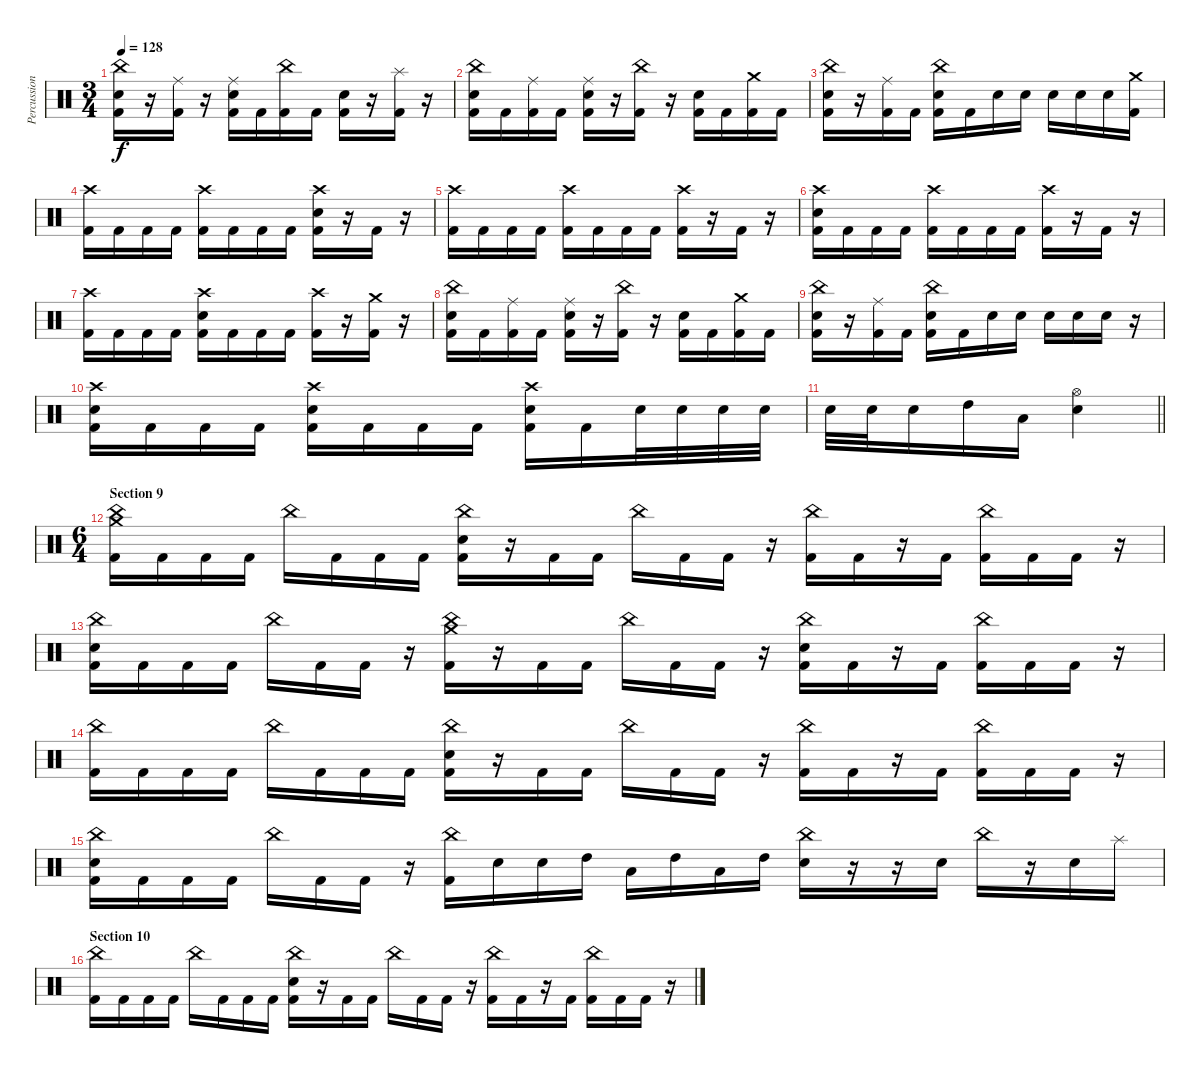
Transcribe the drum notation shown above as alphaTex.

\track ("Percussion" "Percussion") {instrument percussion}
\staff {score}
\articulation defaults
\ts (3 4)
\tempo 128
\clef neutral
\ks c
("China (hit)" "Snare (hit) 2" "Kick (hit) 2").16{dy f} r.16 ("Ride (middle)" "Kick (hit) 2").16 r.16 ("Ride (middle)" "Snare (hit) 2" "Kick (hit) 2").16 "Kick (hit) 2".16 ("China (hit)" "Kick (hit) 2").16 "Kick (hit) 2".16 ("Snare (hit) 2" "Kick (hit) 2").16 r.16 ("Splash (hit)" "Kick (hit) 2").16 r.16 |
("China (hit)" "Snare (hit) 2" "Kick (hit) 2").16 "Kick (hit) 2".16 ("Ride (middle)" "Kick (hit) 2").16 "Kick (hit) 2".16 ("Ride (middle)" "Snare (hit) 2" "Kick (hit) 2").16 r.16 ("China (hit)" "Kick (hit) 2").16 r.16 ("Snare (hit) 2" "Kick (hit) 2").16 "Kick (hit) 2".16 ("Crash medium (hit)" "Kick (hit) 2").16 "Kick (hit) 2".16 |
("China (hit)" "Snare (hit) 2" "Kick (hit) 2").16 r.16 ("Ride (middle)" "Kick (hit) 2").16 "Kick (hit) 2".16 ("China (hit)" "Snare (hit) 2" "Kick (hit) 2").16 "Kick (hit) 2".16 "Snare (hit) 2".16 "Snare (hit) 2".16 "Snare (hit) 2".16 "Snare (hit) 2".16 "Snare (hit) 2".16 ("Crash medium (hit)" "Kick (hit) 2").16 |
("Crash high (hit)" "Kick (hit) 2").16 "Kick (hit) 2".16 "Kick (hit) 2".16 "Kick (hit) 2".16 ("Crash high (hit)" "Kick (hit) 2").16 "Kick (hit) 2".16 "Kick (hit) 2".16 "Kick (hit) 2".16 ("Crash high (hit)" "Snare (hit) 2" "Kick (hit) 2").16 r.16 "Kick (hit) 2".16 r.16 |
("Crash high (hit)" "Kick (hit) 2").16 "Kick (hit) 2".16 "Kick (hit) 2".16 "Kick (hit) 2".16 ("Crash high (hit)" "Kick (hit) 2").16 "Kick (hit) 2".16 "Kick (hit) 2".16 "Kick (hit) 2".16 ("Crash high (hit)" "Kick (hit) 2").16 r.16 "Kick (hit) 2".16 r.16 |
("Crash high (hit)" "Snare (hit) 2" "Kick (hit) 2").16 "Kick (hit) 2".16 "Kick (hit) 2".16 "Kick (hit) 2".16 ("Crash high (hit)" "Kick (hit) 2").16 "Kick (hit) 2".16 "Kick (hit) 2".16 "Kick (hit) 2".16 ("Crash high (hit)" "Kick (hit) 2").16 r.16 "Kick (hit) 2".16 r.16 |
("Crash high (hit)" "Kick (hit) 2").16 "Kick (hit) 2".16 "Kick (hit) 2".16 "Kick (hit) 2".16 ("Crash high (hit)" "Snare (hit) 2" "Kick (hit) 2").16 "Kick (hit) 2".16 "Kick (hit) 2".16 "Kick (hit) 2".16 ("Crash high (hit)" "Kick (hit) 2").16 r.16 ("Crash medium (hit)" "Kick (hit) 2").16 r.16 |
("China (hit)" "Snare (hit) 2" "Kick (hit) 2").16 "Kick (hit) 2".16 ("Ride (middle)" "Kick (hit) 2").16 "Kick (hit) 2".16 ("Ride (middle)" "Snare (hit) 2" "Kick (hit) 2").16 r.16 ("China (hit)" "Kick (hit) 2").16 r.16 ("Snare (hit) 2" "Kick (hit) 2").16 "Kick (hit) 2".16 ("Crash medium (hit)" "Kick (hit) 2").16 "Kick (hit) 2".16 |
("China (hit)" "Snare (hit) 2" "Kick (hit) 2").16 r.16 ("Ride (middle)" "Kick (hit) 2").16 "Kick (hit) 2".16 ("China (hit)" "Snare (hit) 2" "Kick (hit) 2").16 "Kick (hit) 2".16 "Snare (hit) 2".16 "Snare (hit) 2".16 "Snare (hit) 2".16 "Snare (hit) 2".16 "Snare (hit) 2".16 r.16 |
("Crash high (hit)" "Snare (hit) 2" "Kick (hit) 2").16 "Kick (hit) 2".16 "Kick (hit) 2".16 "Kick (hit) 2".16 ("Crash high (hit)" "Snare (hit) 2" "Kick (hit) 2").16 "Kick (hit) 2".16 "Kick (hit) 2".16 "Kick (hit) 2".16 ("Crash high (hit)" "Snare (hit) 2" "Kick (hit) 2").16 "Kick (hit) 2".16 "Snare (hit) 2".32 "Snare (hit) 2".32 "Snare (hit) 2".32 "Snare (hit) 2".32 |
\barLineRight lightlight "Snare (hit) 2".32 "Snare (hit) 2".32 "Snare (hit) 2".16 "High Tom (hit)".16 "Low Tom (hit)".16
("Hi-Hat (open)" "Snare (hit) 2").4 |
\ts (6 4)
\section ("" "Section 9")
("China (hit)" "Crash medium (hit)" "Kick (hit) 2").16 "Kick (hit) 2".16 "Kick (hit) 2".16 "Kick (hit) 2".16 "China (hit)".16 "Kick (hit) 2".16 "Kick (hit) 2".16 "Kick (hit) 2".16 ("China (hit)" "Snare (hit) 2" "Kick (hit) 2").16 r.16 "Kick (hit) 2".16 "Kick (hit) 2".16 "China (hit)".16 "Kick (hit) 2".16 "Kick (hit) 2".16 r.16 ("China (hit)" "Kick (hit) 2").16 "Kick (hit) 2".16 r.16 "Kick (hit) 2".16 ("China (hit)" "Kick (hit) 2").16 "Kick (hit) 2".16 "Kick (hit) 2".16 r.16 |
("China (hit)" "Snare (hit) 2" "Kick (hit) 2").16 "Kick (hit) 2".16 "Kick (hit) 2".16 "Kick (hit) 2".16 "China (hit)".16 "Kick (hit) 2".16 "Kick (hit) 2".16 r.16 ("China (hit)" "Crash medium (hit)" "Kick (hit) 2").16 r.16 "Kick (hit) 2".16 "Kick (hit) 2".16 "China (hit)".16 "Kick (hit) 2".16 "Kick (hit) 2".16 r.16 ("China (hit)" "Snare (hit) 2" "Kick (hit) 2").16 "Kick (hit) 2".16 r.16 "Kick (hit) 2".16 ("China (hit)" "Kick (hit) 2").16 "Kick (hit) 2".16 "Kick (hit) 2".16 r.16 |
("China (hit)" "Kick (hit) 2").16 "Kick (hit) 2".16 "Kick (hit) 2".16 "Kick (hit) 2".16 "China (hit)".16 "Kick (hit) 2".16 "Kick (hit) 2".16 "Kick (hit) 2".16 ("China (hit)" "Snare (hit) 2" "Kick (hit) 2").16 r.16 "Kick (hit) 2".16 "Kick (hit) 2".16 "China (hit)".16 "Kick (hit) 2".16 "Kick (hit) 2".16 r.16 ("China (hit)" "Kick (hit) 2").16 "Kick (hit) 2".16 r.16 "Kick (hit) 2".16 ("China (hit)" "Kick (hit) 2").16 "Kick (hit) 2".16 "Kick (hit) 2".16 r.16 |
("China (hit)" "Snare (hit) 2" "Kick (hit) 2").16 "Kick (hit) 2".16 "Kick (hit) 2".16 "Kick (hit) 2".16 "China (hit)".16 "Kick (hit) 2".16 "Kick (hit) 2".16 r.16 ("China (hit)" "Kick (hit) 2").16 "Snare (hit) 2".16 "Snare (hit) 2".16 "High Tom (hit)".16 "Low Tom (hit)".16 "High Tom (hit)".16 "Low Tom (hit)".16 "High Tom (hit)".16 ("China (hit)" "Snare (hit) 2").16 r.16 r.16 "Snare (hit) 2".16 "China (hit)".16 r.16 "Snare (hit) 2".16 "Splash (hit)".16 |
\section ("" "Section 10")
("China (hit)" "Kick (hit) 2").16 "Kick (hit) 2".16 "Kick (hit) 2".16 "Kick (hit) 2".16 "China (hit)".16 "Kick (hit) 2".16 "Kick (hit) 2".16 "Kick (hit) 2".16 ("China (hit)" "Snare (hit) 2" "Kick (hit) 2").16 r.16 "Kick (hit) 2".16 "Kick (hit) 2".16 "China (hit)".16 "Kick (hit) 2".16 "Kick (hit) 2".16 r.16 ("China (hit)" "Kick (hit) 2").16 "Kick (hit) 2".16 r.16 "Kick (hit) 2".16 ("China (hit)" "Kick (hit) 2").16 "Kick (hit) 2".16 "Kick (hit) 2".16 r.16
